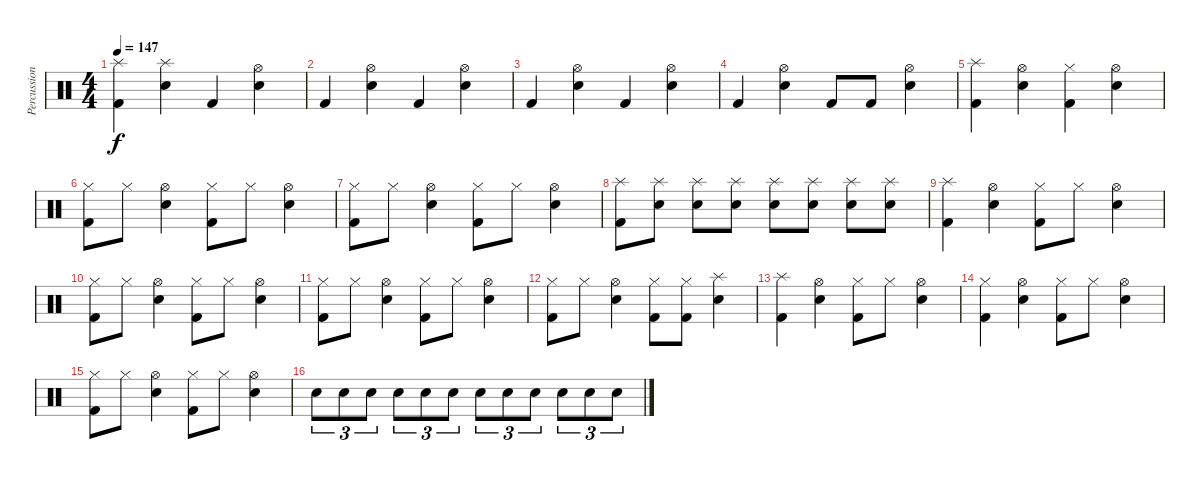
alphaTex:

\track ("Percussion" "Percussion") {instrument percussion}
\staff {score}
\articulation defaults
\ts (4 4)
\tempo 147
\clef neutral
\ks c
("Splash (hit)" "Kick (hit) 2").4{dy f} ("Splash (hit)" "Snare (hit) 2").4 "Kick (hit) 2".4 ("Hi-Hat (open)" "Snare (hit) 2").4 |
"Kick (hit) 2".4 ("Hi-Hat (open)" "Snare (hit) 2").4 "Kick (hit) 2".4 ("Hi-Hat (open)" "Snare (hit) 2").4 |
"Kick (hit) 2".4 ("Hi-Hat (open)" "Snare (hit) 2").4 "Kick (hit) 2".4 ("Hi-Hat (open)" "Snare (hit) 2").4 |
"Kick (hit) 2".4 ("Hi-Hat (open)" "Snare (hit) 2").4 "Kick (hit) 2".8 "Kick (hit) 2".8 ("Hi-Hat (open)" "Snare (hit) 2").4 |
("Splash (hit)" "Kick (hit) 2").4 ("Hi-Hat (open)" "Snare (hit) 2").4 ("Hi-Hat (closed)" "Kick (hit) 2").4 ("Hi-Hat (open)" "Snare (hit) 2").4 |
("Hi-Hat (closed)" "Kick (hit) 2").8 "Hi-Hat (closed)".8 ("Hi-Hat (open)" "Snare (hit) 2").4 ("Hi-Hat (closed)" "Kick (hit) 2").8 "Hi-Hat (closed)".8 ("Hi-Hat (open)" "Snare (hit) 2").4 |
("Hi-Hat (closed)" "Kick (hit) 2").8 "Hi-Hat (closed)".8 ("Hi-Hat (open)" "Snare (hit) 2").4 ("Hi-Hat (closed)" "Kick (hit) 2").8 "Hi-Hat (closed)".8 ("Hi-Hat (open)" "Snare (hit) 2").4 |
("Splash (hit)" "Kick (hit) 2").8 ("Splash (hit)" "Snare (hit) 2").8 ("Splash (hit)" "Snare (hit) 2").8 ("Splash (hit)" "Snare (hit) 2").8 ("Splash (hit)" "Snare (hit) 2").8 ("Splash (hit)" "Snare (hit) 2").8 ("Splash (hit)" "Snare (hit) 2").8 ("Splash (hit)" "Snare (hit) 2").8 |
("Splash (hit)" "Kick (hit) 2").4 ("Hi-Hat (open)" "Snare (hit) 2").4 ("Hi-Hat (closed)" "Kick (hit) 2").8 "Hi-Hat (closed)".8 ("Hi-Hat (open)" "Snare (hit) 2").4 |
("Hi-Hat (closed)" "Kick (hit) 2").8 "Hi-Hat (closed)".8 ("Hi-Hat (open)" "Snare (hit) 2").4 ("Hi-Hat (closed)" "Kick (hit) 2").8 "Hi-Hat (closed)".8 ("Hi-Hat (open)" "Snare (hit) 2").4 |
("Hi-Hat (closed)" "Kick (hit) 2").8 "Hi-Hat (closed)".8 ("Hi-Hat (open)" "Snare (hit) 2").4 ("Hi-Hat (closed)" "Kick (hit) 2").8 "Hi-Hat (closed)".8 ("Hi-Hat (open)" "Snare (hit) 2").4 |
("Hi-Hat (closed)" "Kick (hit) 2").8 "Hi-Hat (closed)".8 ("Hi-Hat (open)" "Snare (hit) 2").4 ("Hi-Hat (closed)" "Kick (hit) 2").8 ("Hi-Hat (closed)" "Kick (hit) 2").8 ("Splash (hit)" "Snare (hit) 2").4 |
("Splash (hit)" "Kick (hit) 2").4 ("Hi-Hat (open)" "Snare (hit) 2").4 ("Hi-Hat (closed)" "Kick (hit) 2").8 "Hi-Hat (closed)".8 ("Hi-Hat (open)" "Snare (hit) 2").4 |
("Hi-Hat (closed)" "Kick (hit) 2").4 ("Hi-Hat (open)" "Snare (hit) 2").4 ("Hi-Hat (closed)" "Kick (hit) 2").8 "Hi-Hat (closed)".8 ("Hi-Hat (open)" "Snare (hit) 2").4 |
("Hi-Hat (closed)" "Kick (hit) 2").8 "Hi-Hat (closed)".8 ("Hi-Hat (open)" "Snare (hit) 2").4 ("Hi-Hat (closed)" "Kick (hit) 2").8 "Hi-Hat (closed)".8 ("Hi-Hat (open)" "Snare (hit) 2").4 |
"Snare (hit) 2".8{tu (3 2)} "Snare (hit) 2".8{tu (3 2)} "Snare (hit) 2".8{tu (3 2)} "Snare (hit) 2".8{tu (3 2)} "Snare (hit) 2".8{tu (3 2)} "Snare (hit) 2".8{tu (3 2)} "Snare (hit) 2".8{tu (3 2)} "Snare (hit) 2".8{tu (3 2)} "Snare (hit) 2".8{tu (3 2)} "Snare (hit) 2".8{tu (3 2)} "Snare (hit) 2".8{tu (3 2)} "Snare (hit) 2".8{tu (3 2)}
